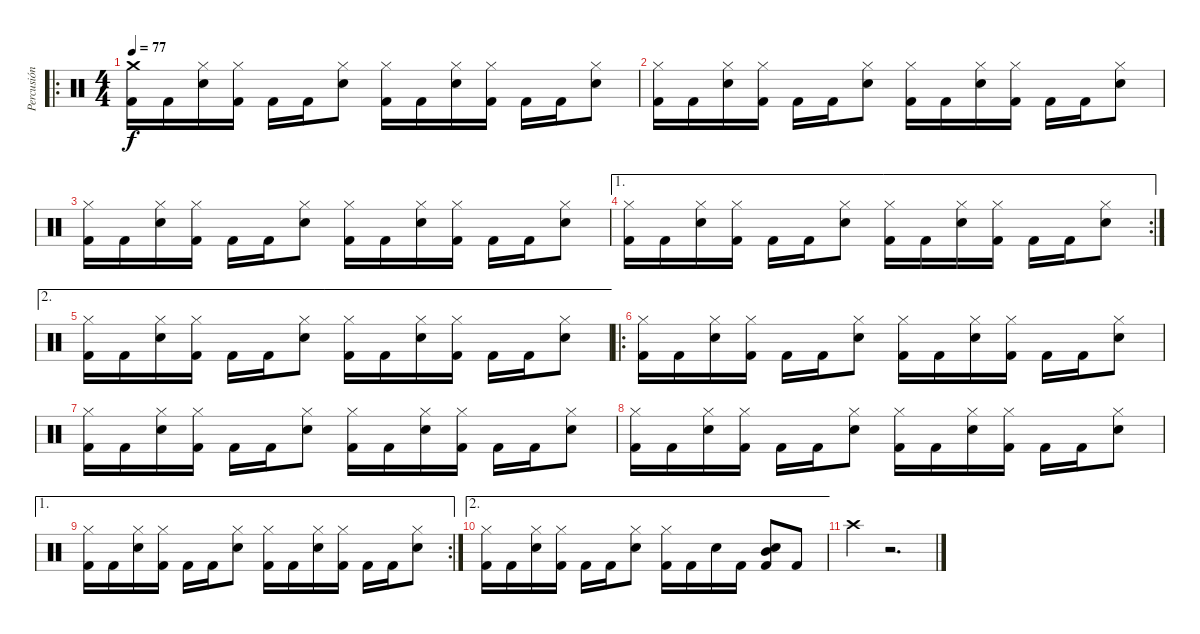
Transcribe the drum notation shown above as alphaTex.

\track ("Percusión" "Percusión") {instrument percussion}
\staff {score}
\articulation defaults
\ro
\ts (4 4)
\tempo 77
\clef neutral
\ks c
("Kick (hit) 2" "Crash medium (hit)").16{dy f} "Kick (hit) 2".16 ("Electric Snare (hit)" "Hi-Hat (closed)").16 ("Kick (hit) 2" "Hi-Hat (closed)").16 "Kick (hit) 2".16 "Kick (hit) 2".16 ("Electric Snare (hit)" "Hi-Hat (closed)").8 ("Kick (hit) 2" "Hi-Hat (closed)").16 "Kick (hit) 2".16 ("Electric Snare (hit)" "Hi-Hat (closed)").16 ("Kick (hit) 2" "Hi-Hat (closed)").16 "Kick (hit) 2".16 "Kick (hit) 2".16 ("Electric Snare (hit)" "Hi-Hat (closed)").8 |
("Kick (hit) 2" "Hi-Hat (closed)").16 "Kick (hit) 2".16 ("Electric Snare (hit)" "Hi-Hat (closed)").16 ("Kick (hit) 2" "Hi-Hat (closed)").16 "Kick (hit) 2".16 "Kick (hit) 2".16 ("Electric Snare (hit)" "Hi-Hat (closed)").8 ("Kick (hit) 2" "Hi-Hat (closed)").16 "Kick (hit) 2".16 ("Electric Snare (hit)" "Hi-Hat (closed)").16 ("Kick (hit) 2" "Hi-Hat (closed)").16 "Kick (hit) 2".16 "Kick (hit) 2".16 ("Electric Snare (hit)" "Hi-Hat (closed)").8 |
("Kick (hit) 2" "Hi-Hat (closed)").16 "Kick (hit) 2".16 ("Electric Snare (hit)" "Hi-Hat (closed)").16 ("Kick (hit) 2" "Hi-Hat (closed)").16 "Kick (hit) 2".16 "Kick (hit) 2".16 ("Electric Snare (hit)" "Hi-Hat (closed)").8 ("Kick (hit) 2" "Hi-Hat (closed)").16 "Kick (hit) 2".16 ("Electric Snare (hit)" "Hi-Hat (closed)").16 ("Kick (hit) 2" "Hi-Hat (closed)").16 "Kick (hit) 2".16 "Kick (hit) 2".16 ("Electric Snare (hit)" "Hi-Hat (closed)").8 |
\ae 1
\rc 2
("Kick (hit) 2" "Hi-Hat (closed)").16 "Kick (hit) 2".16 ("Electric Snare (hit)" "Hi-Hat (closed)").16 ("Kick (hit) 2" "Hi-Hat (closed)").16 "Kick (hit) 2".16 "Kick (hit) 2".16 ("Electric Snare (hit)" "Hi-Hat (closed)").8 ("Kick (hit) 2" "Hi-Hat (closed)").16 "Kick (hit) 2".16 ("Electric Snare (hit)" "Hi-Hat (closed)").16 ("Kick (hit) 2" "Hi-Hat (closed)").16 "Kick (hit) 2".16 "Kick (hit) 2".16 ("Electric Snare (hit)" "Hi-Hat (closed)").8 |
\ae 2
("Kick (hit) 2" "Hi-Hat (closed)").16 "Kick (hit) 2".16 ("Electric Snare (hit)" "Hi-Hat (closed)").16 ("Kick (hit) 2" "Hi-Hat (closed)").16 "Kick (hit) 2".16 "Kick (hit) 2".16 ("Electric Snare (hit)" "Hi-Hat (closed)").8 ("Kick (hit) 2" "Hi-Hat (closed)").16 "Kick (hit) 2".16 ("Electric Snare (hit)" "Hi-Hat (closed)").16 ("Kick (hit) 2" "Hi-Hat (closed)").16 "Kick (hit) 2".16 "Kick (hit) 2".16 ("Electric Snare (hit)" "Hi-Hat (closed)").8 |
\ro
("Kick (hit) 2" "Hi-Hat (closed)").16 "Kick (hit) 2".16 ("Hi-Hat (closed)" "Electric Snare (hit)").16 ("Kick (hit) 2" "Hi-Hat (closed)").16 "Kick (hit) 2".16 "Kick (hit) 2".16 ("Electric Snare (hit)" "Hi-Hat (closed)").8 ("Kick (hit) 2" "Hi-Hat (closed)").16 "Kick (hit) 2".16 ("Electric Snare (hit)" "Hi-Hat (closed)").16 ("Kick (hit) 2" "Hi-Hat (closed)").16 "Kick (hit) 2".16 "Kick (hit) 2".16 ("Electric Snare (hit)" "Hi-Hat (closed)").8 |
("Kick (hit) 2" "Hi-Hat (closed)").16 "Kick (hit) 2".16 ("Electric Snare (hit)" "Hi-Hat (closed)").16 ("Kick (hit) 2" "Hi-Hat (closed)").16 "Kick (hit) 2".16 "Kick (hit) 2".16 ("Electric Snare (hit)" "Hi-Hat (closed)").8 ("Kick (hit) 2" "Hi-Hat (closed)").16 "Kick (hit) 2".16 ("Electric Snare (hit)" "Hi-Hat (closed)").16 ("Kick (hit) 2" "Hi-Hat (closed)").16 "Kick (hit) 2".16 "Kick (hit) 2".16 ("Electric Snare (hit)" "Hi-Hat (closed)").8 |
("Kick (hit) 2" "Hi-Hat (closed)").16 "Kick (hit) 2".16 ("Electric Snare (hit)" "Hi-Hat (closed)").16 ("Kick (hit) 2" "Hi-Hat (closed)").16 "Kick (hit) 2".16 "Kick (hit) 2".16 ("Electric Snare (hit)" "Hi-Hat (closed)").8 ("Kick (hit) 2" "Hi-Hat (closed)").16 "Kick (hit) 2".16 ("Electric Snare (hit)" "Hi-Hat (closed)").16 ("Kick (hit) 2" "Hi-Hat (closed)").16 "Kick (hit) 2".16 "Kick (hit) 2".16 ("Electric Snare (hit)" "Hi-Hat (closed)").8 |
\ae 1
\rc 2
("Kick (hit) 2" "Hi-Hat (closed)").16 "Kick (hit) 2".16 ("Electric Snare (hit)" "Hi-Hat (closed)").16 ("Kick (hit) 2" "Hi-Hat (closed)").16 "Kick (hit) 2".16 "Kick (hit) 2".16 ("Electric Snare (hit)" "Hi-Hat (closed)").8 ("Kick (hit) 2" "Hi-Hat (closed)").16 "Kick (hit) 2".16 ("Electric Snare (hit)" "Hi-Hat (closed)").16 ("Kick (hit) 2" "Hi-Hat (closed)").16 "Kick (hit) 2".16 "Kick (hit) 2".16 ("Electric Snare (hit)" "Hi-Hat (closed)").8 |
\ae 2
("Kick (hit) 2" "Hi-Hat (closed)").16 "Kick (hit) 2".16 ("Electric Snare (hit)" "Hi-Hat (closed)").16 ("Kick (hit) 2" "Hi-Hat (closed)").16 "Kick (hit) 2".16 "Kick (hit) 2".16 ("Electric Snare (hit)" "Hi-Hat (closed)").8 ("Kick (hit) 2" "Hi-Hat (closed)").16 "Kick (hit) 2".16 "Electric Snare (hit)".16 "Kick (hit) 2".16 ("Electric Snare (hit)" "Kick (hit) 2" "Mid Tom (hit)").8 "Kick (hit) 2".8 |
"Crash high (hit)".4 r.2{d}
